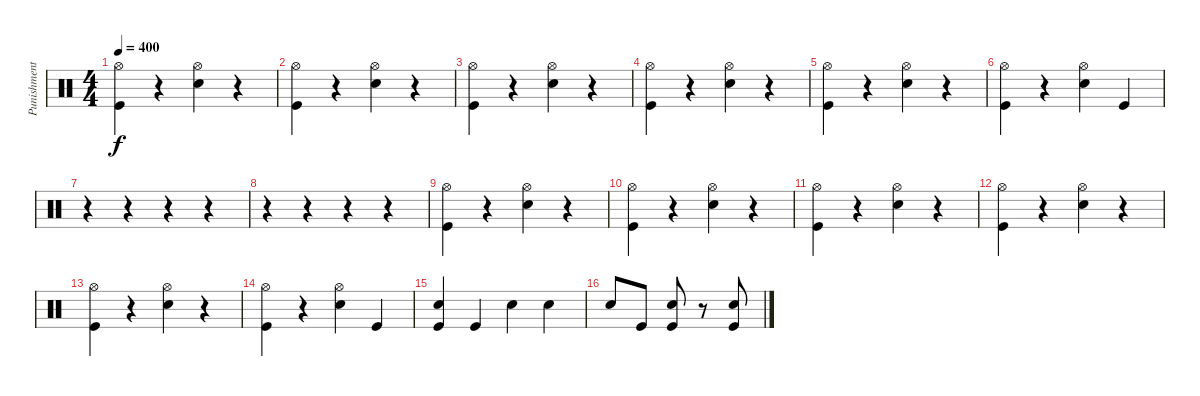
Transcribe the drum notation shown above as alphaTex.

\track ("Punishment" "Punishment") {instrument percussion}
\staff {score}
\articulation defaults
\ts (4 4)
\tempo 400
\clef neutral
\ks c
("Kick (hit)" "Hi-Hat (open)").4{dy f} r.4 ("Electric Snare (hit)" "Hi-Hat (open)").4 r.4 |
("Kick (hit)" "Hi-Hat (open)").4 r.4 ("Electric Snare (hit)" "Hi-Hat (open)").4 r.4 |
("Kick (hit)" "Hi-Hat (open)").4 r.4 ("Electric Snare (hit)" "Hi-Hat (open)").4 r.4 |
("Kick (hit)" "Hi-Hat (open)").4 r.4 ("Electric Snare (hit)" "Hi-Hat (open)").4 r.4 |
("Kick (hit)" "Hi-Hat (open)").4 r.4 ("Electric Snare (hit)" "Hi-Hat (open)").4 r.4 |
("Kick (hit)" "Hi-Hat (open)").4 r.4 ("Electric Snare (hit)" "Hi-Hat (open)").4 "Kick (hit)".4 |
r.4 r.4 r.4 r.4 |
r.4 r.4 r.4 r.4 |
("Kick (hit)" "Hi-Hat (open)").4 r.4 ("Electric Snare (hit)" "Hi-Hat (open)").4 r.4 |
("Kick (hit)" "Hi-Hat (open)").4 r.4 ("Electric Snare (hit)" "Hi-Hat (open)").4 r.4 |
("Kick (hit)" "Hi-Hat (open)").4 r.4 ("Electric Snare (hit)" "Hi-Hat (open)").4 r.4 |
("Kick (hit)" "Hi-Hat (open)").4 r.4 ("Electric Snare (hit)" "Hi-Hat (open)").4 r.4 |
("Kick (hit)" "Hi-Hat (open)").4 r.4 ("Electric Snare (hit)" "Hi-Hat (open)").4 r.4 |
("Kick (hit)" "Hi-Hat (open)").4 r.4 ("Electric Snare (hit)" "Hi-Hat (open)").4 "Kick (hit)".4 |
("Electric Snare (hit)" "Kick (hit)").4 "Kick (hit)".4 "Electric Snare (hit)".4 "Electric Snare (hit)".4 |
"Electric Snare (hit)".8 "Kick (hit)".8 ("Electric Snare (hit)" "Kick (hit)").8 r.8 ("Electric Snare (hit)" "Kick (hit)").8
